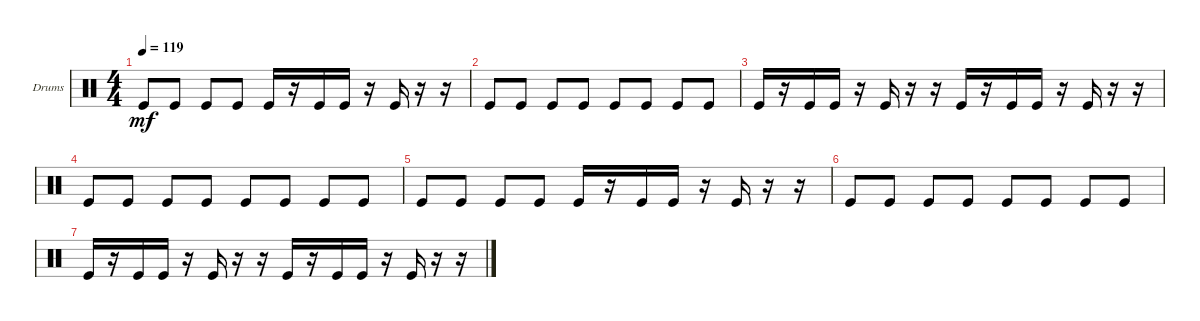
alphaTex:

\defaultSystemsLayout 4
\bracketExtendMode groupsimilarinstruments
\firstSystemTrackNameOrientation horizontal
\otherSystemsTrackNameOrientation horizontal
\track ("Kick (hit)" "Drums") {instrument percussion}
\staff {score}
\articulation defaults
\ts (4 4)
\tempo 119
\clef neutral
\scale
0.333333
\ks c "Kick (hit)".8{dy mf} "Kick (hit)".8 "Kick (hit)".8 "Kick (hit)".8 "Kick (hit)".16
r.16 "Kick (hit)".16 "Kick (hit)".16 r.16 "Kick (hit)".16 r.16 r.16 |
\scale
0.333333 "Kick (hit)".8 "Kick (hit)".8 "Kick (hit)".8 "Kick (hit)".8 "Kick (hit)".8 "Kick (hit)".8 "Kick (hit)".8 "Kick (hit)".8 |
\scale
0.333333 "Kick (hit)".16 r.16 "Kick (hit)".16 "Kick (hit)".16 r.16 "Kick (hit)".16 r.16 r.16 "Kick (hit)".16 r.16 "Kick (hit)".16 "Kick (hit)".16 r.16 "Kick (hit)".16 r.16 r.16 |
\scale
0.333333 "Kick (hit)".8 "Kick (hit)".8 "Kick (hit)".8 "Kick (hit)".8 "Kick (hit)".8 "Kick (hit)".8 "Kick (hit)".8 "Kick (hit)".8 |
\scale
0.333333 "Kick (hit)".8 "Kick (hit)".8 "Kick (hit)".8 "Kick (hit)".8 "Kick (hit)".16 r.16 "Kick (hit)".16 "Kick (hit)".16 r.16 "Kick (hit)".16 r.16 r.16 |
\scale
0.333333 "Kick (hit)".8 "Kick (hit)".8 "Kick (hit)".8 "Kick (hit)".8 "Kick (hit)".8 "Kick (hit)".8 "Kick (hit)".8 "Kick (hit)".8 |
"Kick (hit)".16 r.16 "Kick (hit)".16 "Kick (hit)".16 r.16 "Kick (hit)".16 r.16 r.16 "Kick (hit)".16 r.16 "Kick (hit)".16 "Kick (hit)".16 r.16 "Kick (hit)".16 r.16 r.16
